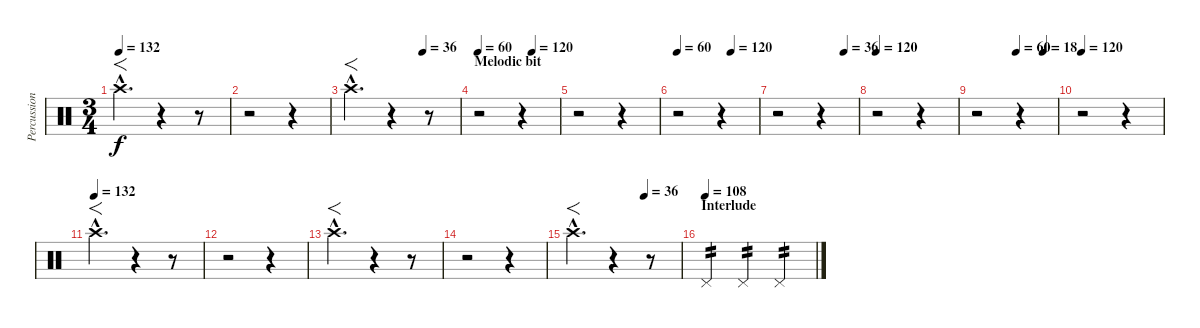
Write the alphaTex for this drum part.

\track ("Percussion" "Percussion") {instrument percussion}
\staff {score}
\articulation defaults
\ts (3 4)
\tempo 132
\clef neutral
\ks c "Crash high (hit)"{hac}.4{f d dy f}
r.4 r.8 |
r.2 r.4 |
\tempo (36 0.6666666666666666)
"Crash high (hit)"{hac}.4{f d} r.4 r.8 |
\section ("" "Melodic bit")
\tempo 60
\tempo (120 0.6666666666666666)
r.2 r.4 |
r.2 r.4 |
\tempo 60
\tempo (120 0.6666666666666666)
r.2 r.4 |
\tempo (36 0.8333333333333334)
r.2 r.4 |
\tempo 120
r.2 r.4 |
\tempo (60 0.5)
\tempo (18 0.8333333333333334)
r.2 r.4 |
\tempo 120
r.2 r.4 |
\tempo (132)
"Crash high (hit)"{hac}.4{f d} r.4 r.8 |
r.2 r.4 |
"Crash high (hit)"{hac}.4{f d} r.4 r.8 |
r.2 r.4 |
\tempo (36 0.6666666666666666)
"Crash high (hit)"{hac}.4{f d} r.4 r.8 |
\section ("" "Interlude")
\tempo (108)
"Pedal Hi-Hat (hit)".4{tp 2} "Pedal Hi-Hat (hit)".4{tp 2} "Pedal Hi-Hat (hit)".4{tp 2}
